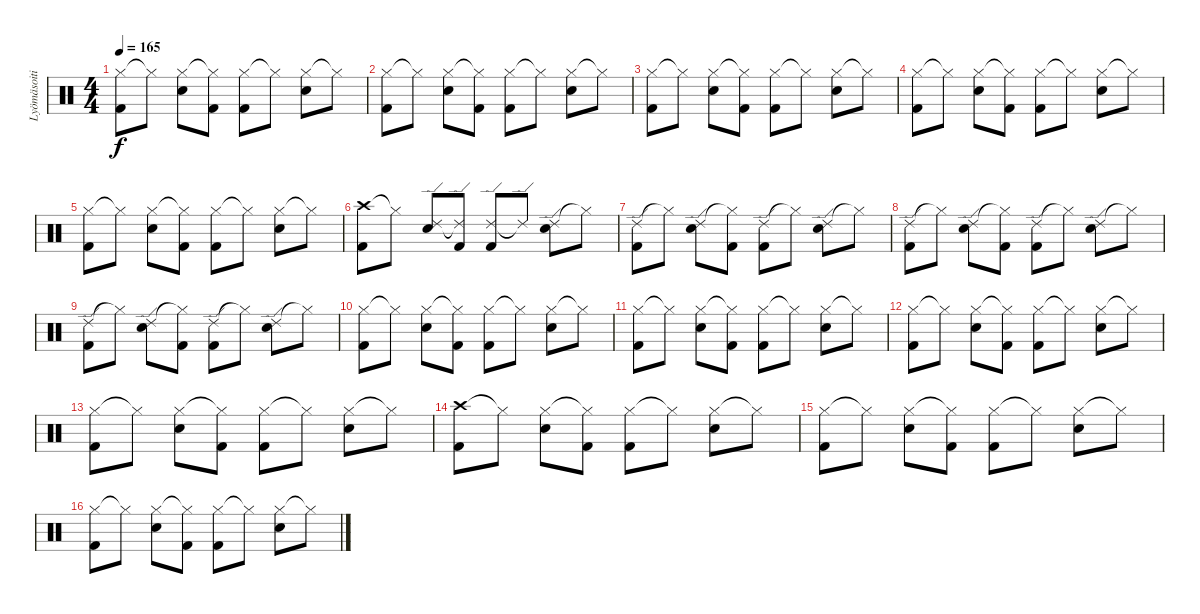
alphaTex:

\track ("Lyömäsoitin" "Lyömäsoiti") {instrument percussion}
\staff {score}
\articulation defaults
\ts (4 4)
\tempo 165
\clef neutral
\ks c
("Hi-Hat (closed)" "Kick (hit) 2").8{dy f} "Hi-Hat (closed)"{t}.8 ("Hi-Hat (closed)" "Snare (hit) 2").8 ("Hi-Hat (closed)"{t} "Kick (hit) 2").8 ("Hi-Hat (closed)" "Kick (hit) 2").8 "Hi-Hat (closed)"{t}.8 ("Hi-Hat (closed)" "Snare (hit) 2").8 "Hi-Hat (closed)"{t}.8 |
("Hi-Hat (closed)" "Kick (hit) 2").8 "Hi-Hat (closed)"{t}.8 ("Hi-Hat (closed)" "Snare (hit) 2").8 ("Hi-Hat (closed)"{t} "Kick (hit) 2").8 ("Hi-Hat (closed)" "Kick (hit) 2").8 "Hi-Hat (closed)"{t}.8 ("Hi-Hat (closed)" "Snare (hit) 2").8 "Hi-Hat (closed)"{t}.8 |
("Hi-Hat (closed)" "Kick (hit) 2").8 "Hi-Hat (closed)"{t}.8 ("Hi-Hat (closed)" "Snare (hit) 2").8 ("Hi-Hat (closed)"{t} "Kick (hit) 2").8 ("Hi-Hat (closed)" "Kick (hit) 2").8 "Hi-Hat (closed)"{t}.8 ("Hi-Hat (closed)" "Snare (hit) 2").8 "Hi-Hat (closed)"{t}.8 |
("Hi-Hat (closed)" "Kick (hit) 2").8 "Hi-Hat (closed)"{t}.8 ("Hi-Hat (closed)" "Snare (hit) 2").8 ("Hi-Hat (closed)"{t} "Kick (hit) 2").8 ("Hi-Hat (closed)" "Kick (hit) 2").8 "Hi-Hat (closed)"{t}.8 ("Hi-Hat (closed)" "Snare (hit) 2").8 "Hi-Hat (closed)"{t}.8 |
("Hi-Hat (closed)" "Kick (hit) 2").8 "Hi-Hat (closed)"{t}.8 ("Hi-Hat (closed)" "Snare (hit) 2").8 ("Hi-Hat (closed)"{t} "Kick (hit) 2").8 ("Hi-Hat (closed)" "Kick (hit) 2").8 "Hi-Hat (closed)"{t}.8 ("Hi-Hat (closed)" "Snare (hit) 2").8 "Hi-Hat (closed)"{t}.8 |
("Crash high (hit)" "Kick (hit) 2").8 "Hi-Hat (closed)"{t}.8 ("Ride (edge) 2" "Snare (hit) 2").8 ("Ride (edge) 2"{t} "Kick (hit) 2").8 ("Ride (edge) 2" "Kick (hit) 2").8 "Ride (edge) 2"{t}.8 ("Ride (edge) 2" "Snare (hit) 2").8 "Hi-Hat (closed)"{t}.8 |
("Ride (edge) 2" "Kick (hit) 2").8 "Hi-Hat (closed)"{t}.8 ("Ride (edge) 2" "Snare (hit) 2").8 ("Hi-Hat (closed)"{t} "Kick (hit) 2").8 ("Ride (edge) 2" "Kick (hit) 2").8 "Hi-Hat (closed)"{t}.8 ("Ride (edge) 2" "Snare (hit) 2").8 "Hi-Hat (closed)"{t}.8 |
("Ride (edge) 2" "Kick (hit) 2").8 "Hi-Hat (closed)"{t}.8 ("Ride (edge) 2" "Snare (hit) 2").8 ("Hi-Hat (closed)"{t} "Kick (hit) 2").8 ("Ride (edge) 2" "Kick (hit) 2").8 "Hi-Hat (closed)"{t}.8 ("Ride (edge) 2" "Snare (hit) 2").8 "Hi-Hat (closed)"{t}.8 |
("Ride (edge) 2" "Kick (hit) 2").8 "Hi-Hat (closed)"{t}.8 ("Ride (edge) 2" "Snare (hit) 2").8 ("Hi-Hat (closed)"{t} "Kick (hit) 2").8 ("Ride (edge) 2" "Kick (hit) 2").8 "Hi-Hat (closed)"{t}.8 ("Ride (edge) 2" "Snare (hit) 2").8 "Hi-Hat (closed)"{t}.8 |
("Hi-Hat (closed)" "Kick (hit) 2").8 "Hi-Hat (closed)"{t}.8 ("Hi-Hat (closed)" "Snare (hit) 2").8 ("Hi-Hat (closed)"{t} "Kick (hit) 2").8 ("Hi-Hat (closed)" "Kick (hit) 2").8 "Hi-Hat (closed)"{t}.8 ("Hi-Hat (closed)" "Snare (hit) 2").8 "Hi-Hat (closed)"{t}.8 |
("Hi-Hat (closed)" "Kick (hit) 2").8 "Hi-Hat (closed)"{t}.8 ("Hi-Hat (closed)" "Snare (hit) 2").8 ("Hi-Hat (closed)"{t} "Kick (hit) 2").8 ("Hi-Hat (closed)" "Kick (hit) 2").8 "Hi-Hat (closed)"{t}.8 ("Hi-Hat (closed)" "Snare (hit) 2").8 "Hi-Hat (closed)"{t}.8 |
("Hi-Hat (closed)" "Kick (hit) 2").8 "Hi-Hat (closed)"{t}.8 ("Hi-Hat (closed)" "Snare (hit) 2").8 ("Hi-Hat (closed)"{t} "Kick (hit) 2").8 ("Hi-Hat (closed)" "Kick (hit) 2").8 "Hi-Hat (closed)"{t}.8 ("Hi-Hat (closed)" "Snare (hit) 2").8 "Hi-Hat (closed)"{t}.8 |
("Hi-Hat (closed)" "Kick (hit) 2").8 "Hi-Hat (closed)"{t}.8 ("Hi-Hat (closed)" "Snare (hit) 2").8 ("Hi-Hat (closed)"{t} "Kick (hit) 2").8 ("Hi-Hat (closed)" "Kick (hit) 2").8 "Hi-Hat (closed)"{t}.8 ("Hi-Hat (closed)" "Snare (hit) 2").8 "Hi-Hat (closed)"{t}.8 |
("Crash high (hit)" "Kick (hit) 2").8 "Hi-Hat (closed)"{t}.8 ("Hi-Hat (closed)" "Snare (hit) 2").8 ("Hi-Hat (closed)"{t} "Kick (hit) 2").8 ("Hi-Hat (closed)" "Kick (hit) 2").8 "Hi-Hat (closed)"{t}.8 ("Hi-Hat (closed)" "Snare (hit) 2").8 "Hi-Hat (closed)"{t}.8 |
("Hi-Hat (closed)" "Kick (hit) 2").8 "Hi-Hat (closed)"{t}.8 ("Hi-Hat (closed)" "Snare (hit) 2").8 ("Hi-Hat (closed)"{t} "Kick (hit) 2").8 ("Hi-Hat (closed)" "Kick (hit) 2").8 "Hi-Hat (closed)"{t}.8 ("Hi-Hat (closed)" "Snare (hit) 2").8 "Hi-Hat (closed)"{t}.8 |
("Hi-Hat (closed)" "Kick (hit) 2").8 "Hi-Hat (closed)"{t}.8 ("Hi-Hat (closed)" "Snare (hit) 2").8 ("Hi-Hat (closed)"{t} "Kick (hit) 2").8 ("Hi-Hat (closed)" "Kick (hit) 2").8 "Hi-Hat (closed)"{t}.8 ("Hi-Hat (closed)" "Snare (hit) 2").8 "Hi-Hat (closed)"{t}.8
